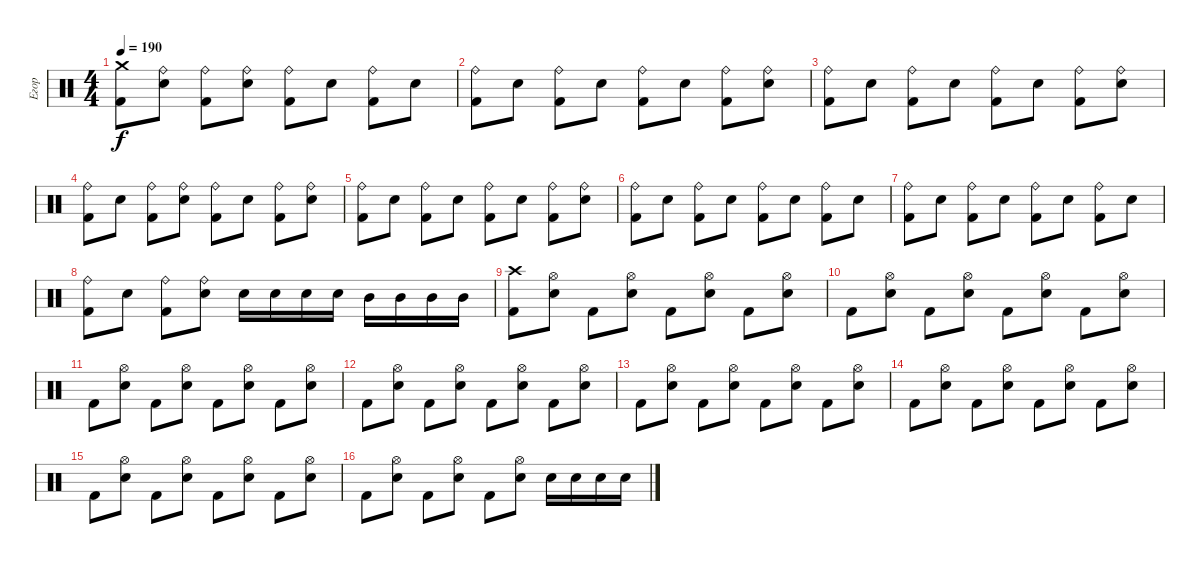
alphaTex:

\track ("Егор" "Егор") {instrument percussion}
\staff {score}
\articulation defaults
\ts (4 4)
\tempo 190
\clef neutral
\ks c
("Kick (hit) 2" "Crash medium (hit)").8{dy f} ("Snare (hit) 2" "Ride (bell)").8 ("Kick (hit) 2" "Ride (bell)").8 ("Snare (hit) 2" "Ride (bell)").8 ("Kick (hit) 2" "Ride (bell)").8 "Snare (hit) 2".8 ("Kick (hit) 2" "Ride (bell)").8 "Snare (hit) 2".8 |
("Kick (hit) 2" "Ride (bell)").8 "Snare (hit) 2".8 ("Kick (hit) 2" "Ride (bell)").8 "Snare (hit) 2".8 ("Kick (hit) 2" "Ride (bell)").8 "Snare (hit) 2".8 ("Kick (hit) 2" "Ride (bell)").8 ("Snare (hit) 2" "Ride (bell)").8 |
("Kick (hit) 2" "Ride (bell)").8 "Snare (hit) 2".8 ("Kick (hit) 2" "Ride (bell)").8 "Snare (hit) 2".8 ("Kick (hit) 2" "Ride (bell)").8 "Snare (hit) 2".8 ("Kick (hit) 2" "Ride (bell)").8 ("Snare (hit) 2" "Ride (bell)").8 |
("Kick (hit) 2" "Ride (bell)").8 "Snare (hit) 2".8 ("Kick (hit) 2" "Ride (bell)").8 ("Snare (hit) 2" "Ride (bell)").8 ("Kick (hit) 2" "Ride (bell)").8 "Snare (hit) 2".8 ("Kick (hit) 2" "Ride (bell)").8 ("Snare (hit) 2" "Ride (bell)").8 |
("Kick (hit) 2" "Ride (bell)").8 "Snare (hit) 2".8 ("Kick (hit) 2" "Ride (bell)").8 "Snare (hit) 2".8 ("Kick (hit) 2" "Ride (bell)").8 "Snare (hit) 2".8 ("Kick (hit) 2" "Ride (bell)").8 ("Snare (hit) 2" "Ride (bell)").8 |
("Kick (hit) 2" "Ride (bell)").8 "Snare (hit) 2".8 ("Kick (hit) 2" "Ride (bell)").8 "Snare (hit) 2".8 ("Kick (hit) 2" "Ride (bell)").8 "Snare (hit) 2".8 ("Kick (hit) 2" "Ride (bell)").8 "Snare (hit) 2".8 |
("Kick (hit) 2" "Ride (bell)").8 "Snare (hit) 2".8 ("Kick (hit) 2" "Ride (bell)").8 "Snare (hit) 2".8 ("Kick (hit) 2" "Ride (bell)").8 "Snare (hit) 2".8 ("Kick (hit) 2" "Ride (bell)").8 "Snare (hit) 2".8 |
("Kick (hit) 2" "Ride (bell)").8 "Snare (hit) 2".8 ("Kick (hit) 2" "Ride (bell)").8 ("Snare (hit) 2" "Ride (bell)").8 "Snare (hit) 2".16 "Snare (hit) 2".16 "Snare (hit) 2".16 "Snare (hit) 2".16 "Mid Tom (hit)".16 "Mid Tom (hit)".16 "Mid Tom (hit)".16 "Mid Tom (hit)".16 |
("Crash high (hit)" "Kick (hit) 2").8 ("Hi-Hat (open)" "Snare (hit) 2").8 "Kick (hit) 2".8 ("Hi-Hat (open)" "Snare (hit) 2").8 "Kick (hit) 2".8 ("Hi-Hat (open)" "Snare (hit) 2").8 "Kick (hit) 2".8 ("Hi-Hat (open)" "Snare (hit) 2").8 |
"Kick (hit) 2".8 ("Hi-Hat (open)" "Snare (hit) 2").8 "Kick (hit) 2".8 ("Hi-Hat (open)" "Snare (hit) 2").8 "Kick (hit) 2".8 ("Hi-Hat (open)" "Snare (hit) 2").8 "Kick (hit) 2".8 ("Hi-Hat (open)" "Snare (hit) 2").8 |
"Kick (hit) 2".8 ("Hi-Hat (open)" "Snare (hit) 2").8 "Kick (hit) 2".8 ("Hi-Hat (open)" "Snare (hit) 2").8 "Kick (hit) 2".8 ("Hi-Hat (open)" "Snare (hit) 2").8 "Kick (hit) 2".8 ("Hi-Hat (open)" "Snare (hit) 2").8 |
"Kick (hit) 2".8 ("Hi-Hat (open)" "Snare (hit) 2").8 "Kick (hit) 2".8 ("Hi-Hat (open)" "Snare (hit) 2").8 "Kick (hit) 2".8 ("Hi-Hat (open)" "Snare (hit) 2").8 "Kick (hit) 2".8 ("Hi-Hat (open)" "Snare (hit) 2").8 |
"Kick (hit) 2".8 ("Hi-Hat (open)" "Snare (hit) 2").8 "Kick (hit) 2".8 ("Hi-Hat (open)" "Snare (hit) 2").8 "Kick (hit) 2".8 ("Hi-Hat (open)" "Snare (hit) 2").8 "Kick (hit) 2".8 ("Hi-Hat (open)" "Snare (hit) 2").8 |
"Kick (hit) 2".8 ("Hi-Hat (open)" "Snare (hit) 2").8 "Kick (hit) 2".8 ("Hi-Hat (open)" "Snare (hit) 2").8 "Kick (hit) 2".8 ("Hi-Hat (open)" "Snare (hit) 2").8 "Kick (hit) 2".8 ("Hi-Hat (open)" "Snare (hit) 2").8 |
"Kick (hit) 2".8 ("Hi-Hat (open)" "Snare (hit) 2").8 "Kick (hit) 2".8 ("Hi-Hat (open)" "Snare (hit) 2").8 "Kick (hit) 2".8 ("Hi-Hat (open)" "Snare (hit) 2").8 "Kick (hit) 2".8 ("Hi-Hat (open)" "Snare (hit) 2").8 |
"Kick (hit) 2".8 ("Hi-Hat (open)" "Snare (hit) 2").8 "Kick (hit) 2".8 ("Hi-Hat (open)" "Snare (hit) 2").8 "Kick (hit) 2".8 ("Hi-Hat (open)" "Snare (hit) 2").8 "Snare (hit) 2".16 "Snare (hit) 2".16 "Snare (hit) 2".16 "Snare (hit) 2".16
